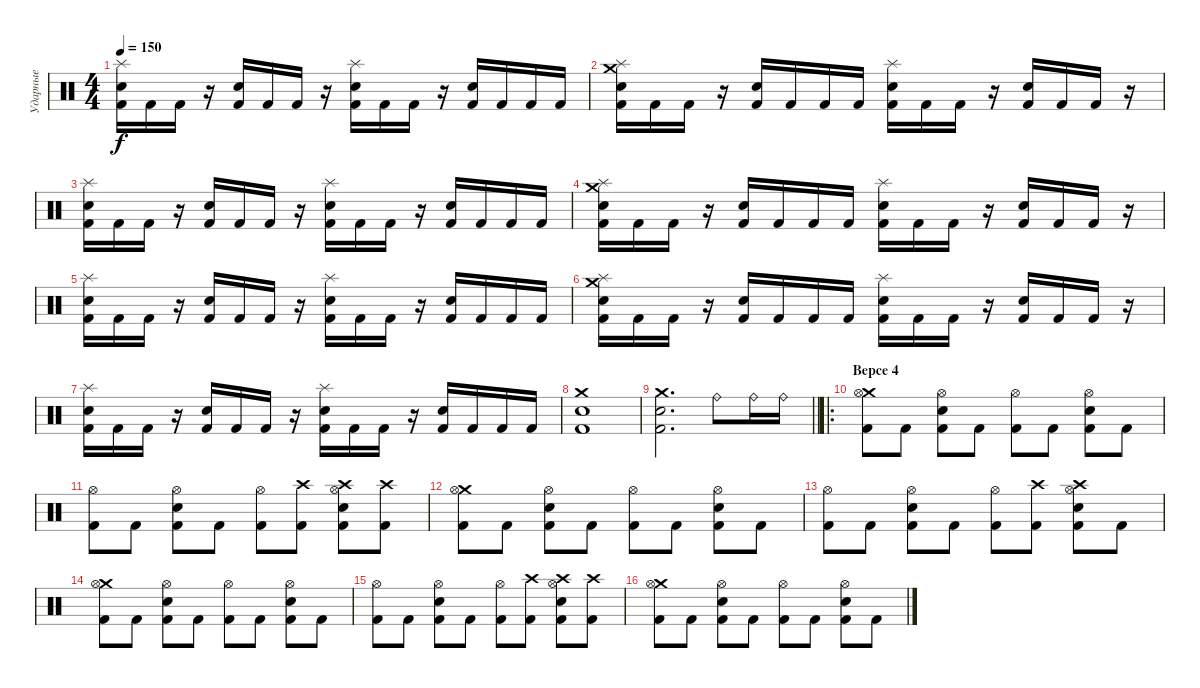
\track ("Ударные" "Ударные") {instrument percussion}
\staff {score}
\articulation defaults
\ts (4 4)
\tempo 150
\clef neutral
\ks c
("Splash (hit)" "Snare (hit) 2" "Kick (hit) 2").16{dy f} "Kick (hit) 2".16 "Kick (hit) 2".16 r.16 ("Snare (hit) 2" "Kick (hit) 2").16 "Kick (hit) 2".16 "Kick (hit) 2".16 r.16 ("Splash (hit)" "Snare (hit) 2" "Kick (hit) 2").16 "Kick (hit) 2".16 "Kick (hit) 2".16 r.16 ("Snare (hit) 2" "Kick (hit) 2").16 "Kick (hit) 2".16 "Kick (hit) 2".16 "Kick (hit) 2".16 |
("Crash medium (hit)" "Splash (hit)" "Snare (hit) 2" "Kick (hit) 2").16 "Kick (hit) 2".16 "Kick (hit) 2".16 r.16 ("Snare (hit) 2" "Kick (hit) 2").16 "Kick (hit) 2".16 "Kick (hit) 2".16 "Kick (hit) 2".16 ("Splash (hit)" "Snare (hit) 2" "Kick (hit) 2").16 "Kick (hit) 2".16 "Kick (hit) 2".16 r.16 ("Snare (hit) 2" "Kick (hit) 2").16 "Kick (hit) 2".16 "Kick (hit) 2".16 r.16 |
("Splash (hit)" "Snare (hit) 2" "Kick (hit) 2").16 "Kick (hit) 2".16 "Kick (hit) 2".16 r.16 ("Snare (hit) 2" "Kick (hit) 2").16 "Kick (hit) 2".16 "Kick (hit) 2".16 r.16 ("Splash (hit)" "Snare (hit) 2" "Kick (hit) 2").16 "Kick (hit) 2".16 "Kick (hit) 2".16 r.16 ("Snare (hit) 2" "Kick (hit) 2").16 "Kick (hit) 2".16 "Kick (hit) 2".16 "Kick (hit) 2".16 |
("Crash medium (hit)" "Splash (hit)" "Snare (hit) 2" "Kick (hit) 2").16 "Kick (hit) 2".16 "Kick (hit) 2".16 r.16 ("Snare (hit) 2" "Kick (hit) 2").16 "Kick (hit) 2".16 "Kick (hit) 2".16 "Kick (hit) 2".16 ("Splash (hit)" "Snare (hit) 2" "Kick (hit) 2").16 "Kick (hit) 2".16 "Kick (hit) 2".16 r.16 ("Snare (hit) 2" "Kick (hit) 2").16 "Kick (hit) 2".16 "Kick (hit) 2".16 r.16 |
("Splash (hit)" "Snare (hit) 2" "Kick (hit) 2").16 "Kick (hit) 2".16 "Kick (hit) 2".16 r.16 ("Snare (hit) 2" "Kick (hit) 2").16 "Kick (hit) 2".16 "Kick (hit) 2".16 r.16 ("Splash (hit)" "Snare (hit) 2" "Kick (hit) 2").16 "Kick (hit) 2".16 "Kick (hit) 2".16 r.16 ("Snare (hit) 2" "Kick (hit) 2").16 "Kick (hit) 2".16 "Kick (hit) 2".16 "Kick (hit) 2".16 |
("Crash medium (hit)" "Splash (hit)" "Snare (hit) 2" "Kick (hit) 2").16 "Kick (hit) 2".16 "Kick (hit) 2".16 r.16 ("Snare (hit) 2" "Kick (hit) 2").16 "Kick (hit) 2".16 "Kick (hit) 2".16 "Kick (hit) 2".16 ("Splash (hit)" "Snare (hit) 2" "Kick (hit) 2").16 "Kick (hit) 2".16 "Kick (hit) 2".16 r.16 ("Snare (hit) 2" "Kick (hit) 2").16 "Kick (hit) 2".16 "Kick (hit) 2".16 r.16 |
("Splash (hit)" "Snare (hit) 2" "Kick (hit) 2").16 "Kick (hit) 2".16 "Kick (hit) 2".16 r.16 ("Snare (hit) 2" "Kick (hit) 2").16 "Kick (hit) 2".16 "Kick (hit) 2".16 r.16 ("Splash (hit)" "Snare (hit) 2" "Kick (hit) 2").16 "Kick (hit) 2".16 "Kick (hit) 2".16 r.16 ("Snare (hit) 2" "Kick (hit) 2").16 "Kick (hit) 2".16 "Kick (hit) 2".16 "Kick (hit) 2".16 |
("Crash medium (hit)" "Snare (hit) 2" "Kick (hit) 2").1 |
\barLineRight lightlight
("Crash medium (hit)" "Snare (hit) 2" "Kick (hit) 2").2{d} "Ride (bell)".8 "Ride (bell)".16 "Ride (bell)".16 |
\ro
\section ("" "Версе 4")
("Crash medium (hit)" "Hi-Hat (open)" "Kick (hit) 2").8 "Kick (hit) 2".8 ("Hi-Hat (open)" "Snare (hit) 2" "Kick (hit) 2").8 "Kick (hit) 2".8 ("Hi-Hat (open)" "Kick (hit) 2").8 "Kick (hit) 2".8 ("Hi-Hat (open)" "Snare (hit) 2" "Kick (hit) 2").8 "Kick (hit) 2".8 |
("Hi-Hat (open)" "Kick (hit) 2").8 "Kick (hit) 2".8 ("Hi-Hat (open)" "Snare (hit) 2" "Kick (hit) 2").8 "Kick (hit) 2".8 ("Hi-Hat (open)" "Kick (hit) 2").8 ("Crash high (hit)" "Kick (hit) 2").8 ("Crash high (hit)" "Hi-Hat (open)" "Snare (hit) 2" "Kick (hit) 2").8 ("Crash high (hit)" "Kick (hit) 2").8 |
("Crash medium (hit)" "Hi-Hat (open)" "Kick (hit) 2").8 "Kick (hit) 2".8 ("Hi-Hat (open)" "Snare (hit) 2" "Kick (hit) 2").8 "Kick (hit) 2".8 ("Hi-Hat (open)" "Kick (hit) 2").8 "Kick (hit) 2".8 ("Hi-Hat (open)" "Snare (hit) 2" "Kick (hit) 2").8 "Kick (hit) 2".8 |
("Hi-Hat (open)" "Kick (hit) 2").8 "Kick (hit) 2".8 ("Hi-Hat (open)" "Snare (hit) 2" "Kick (hit) 2").8 "Kick (hit) 2".8 ("Hi-Hat (open)" "Kick (hit) 2").8 ("Crash high (hit)" "Kick (hit) 2").8 ("Crash high (hit)" "Hi-Hat (open)" "Snare (hit) 2" "Kick (hit) 2").8 "Kick (hit) 2".8 |
("Crash medium (hit)" "Hi-Hat (open)" "Kick (hit) 2").8 "Kick (hit) 2".8 ("Hi-Hat (open)" "Snare (hit) 2" "Kick (hit) 2").8 "Kick (hit) 2".8 ("Hi-Hat (open)" "Kick (hit) 2").8 "Kick (hit) 2".8 ("Hi-Hat (open)" "Snare (hit) 2" "Kick (hit) 2").8 "Kick (hit) 2".8 |
("Hi-Hat (open)" "Kick (hit) 2").8 "Kick (hit) 2".8 ("Hi-Hat (open)" "Snare (hit) 2" "Kick (hit) 2").8 "Kick (hit) 2".8 ("Hi-Hat (open)" "Kick (hit) 2").8 ("Crash high (hit)" "Kick (hit) 2").8 ("Crash high (hit)" "Hi-Hat (open)" "Snare (hit) 2" "Kick (hit) 2").8 ("Crash high (hit)" "Kick (hit) 2").8 |
("Crash medium (hit)" "Hi-Hat (open)" "Kick (hit) 2").8 "Kick (hit) 2".8 ("Hi-Hat (open)" "Snare (hit) 2" "Kick (hit) 2").8 "Kick (hit) 2".8 ("Hi-Hat (open)" "Kick (hit) 2").8 "Kick (hit) 2".8 ("Hi-Hat (open)" "Snare (hit) 2" "Kick (hit) 2").8 "Kick (hit) 2".8
